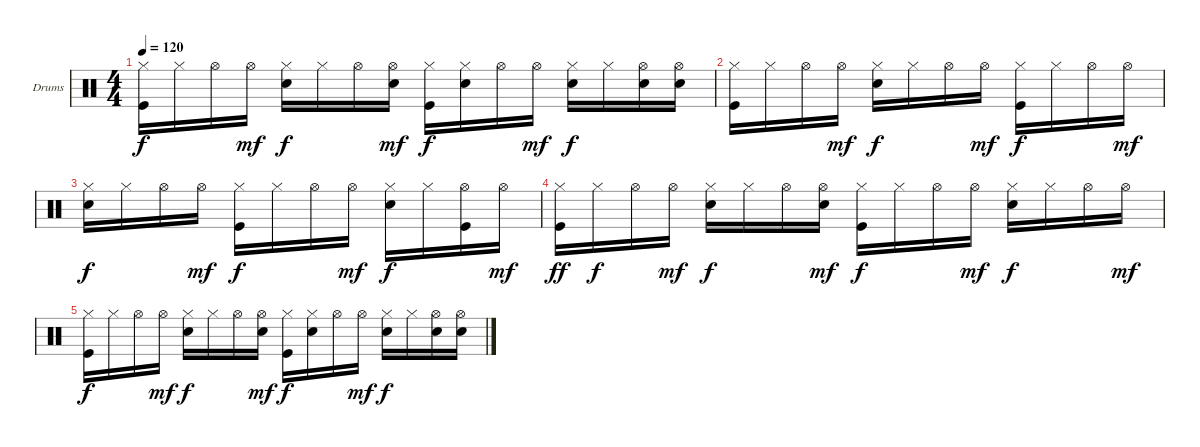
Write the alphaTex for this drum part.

\defaultSystemsLayout 4
\bracketExtendMode groupsimilarinstruments
\firstSystemTrackNameOrientation horizontal
\otherSystemsTrackNameOrientation horizontal
\track ("Г.Гурьянов-Ударные" "Drums") {instrument percussion}
\staff {score}
\articulation defaults
\ts (4 4)
\tempo 120
\clef neutral
\ks c
("Kick (hit)" "Hi-Hat (closed)").16{dy f} "Hi-Hat (closed)".16 "Hi-Hat (open)".16 "Hi-Hat (open)".16{dy mf} ("Snare (hit) 2" "Hi-Hat (closed)").16{dy f} "Hi-Hat (closed)".16 "Hi-Hat (open)".16 ("Hi-Hat (open)" "Snare (hit) 2").16{dy mf} ("Hi-Hat (closed)" "Kick (hit)").16{dy f} ("Snare (hit) 2" "Hi-Hat (closed)").16 "Hi-Hat (open)".16 "Hi-Hat (open)".16{dy mf} ("Snare (hit) 2" "Hi-Hat (closed)").16{dy f} "Hi-Hat (closed)".16 ("Snare (hit) 2" "Hi-Hat (open)").16 ("Snare (hit) 2" "Hi-Hat (open)").16 |
("Hi-Hat (closed)" "Kick (hit)").16 "Hi-Hat (closed)".16 "Hi-Hat (open)".16 "Hi-Hat (open)".16{dy mf} ("Snare (hit) 2" "Hi-Hat (closed)").16{dy f} "Hi-Hat (closed)".16 "Hi-Hat (open)".16 "Hi-Hat (open)".16{dy mf} ("Kick (hit)" "Hi-Hat (closed)").16{dy f} "Hi-Hat (closed)".16 "Hi-Hat (open)".16 "Hi-Hat (open)".16{dy mf} |
("Snare (hit) 2" "Hi-Hat (closed)").16{dy f} "Hi-Hat (closed)".16 "Hi-Hat (open)".16 "Hi-Hat (open)".16{dy mf} ("Kick (hit)" "Hi-Hat (closed)").16{dy f} "Hi-Hat (closed)".16 "Hi-Hat (open)".16 "Hi-Hat (open)".16{dy mf} ("Snare (hit) 2" "Hi-Hat (closed)").16{dy f} "Hi-Hat (closed)".16 ("Kick (hit)" "Hi-Hat (open)").16 "Hi-Hat (open)".16{dy mf} |
("Kick (hit)" "Hi-Hat (closed)").16{dy ff} "Hi-Hat (closed)".16{dy f} "Hi-Hat (open)".16 "Hi-Hat (open)".16{dy mf} ("Snare (hit) 2" "Hi-Hat (closed)").16{dy f} "Hi-Hat (closed)".16 "Hi-Hat (open)".16 ("Hi-Hat (open)" "Snare (hit) 2").16{dy mf} ("Hi-Hat (closed)" "Kick (hit)").16{dy f} "Hi-Hat (closed)".16 "Hi-Hat (open)".16 "Hi-Hat (open)".16{dy mf} ("Snare (hit) 2" "Hi-Hat (closed)").16{dy f} "Hi-Hat (closed)".16 "Hi-Hat (open)".16 "Hi-Hat (open)".16{dy mf} |
("Kick (hit)" "Hi-Hat (closed)").16{dy f} "Hi-Hat (closed)".16 "Hi-Hat (open)".16 "Hi-Hat (open)".16{dy mf} ("Snare (hit) 2" "Hi-Hat (closed)").16{dy f} "Hi-Hat (closed)".16 "Hi-Hat (open)".16 ("Hi-Hat (open)" "Snare (hit) 2").16{dy mf} ("Hi-Hat (closed)" "Kick (hit)").16{dy f} ("Snare (hit) 2" "Hi-Hat (closed)").16 "Hi-Hat (open)".16 "Hi-Hat (open)".16{dy mf} ("Snare (hit) 2" "Hi-Hat (closed)").16{dy f} "Hi-Hat (closed)".16 ("Snare (hit) 2" "Hi-Hat (open)").16 ("Snare (hit) 2" "Hi-Hat (open)").16
